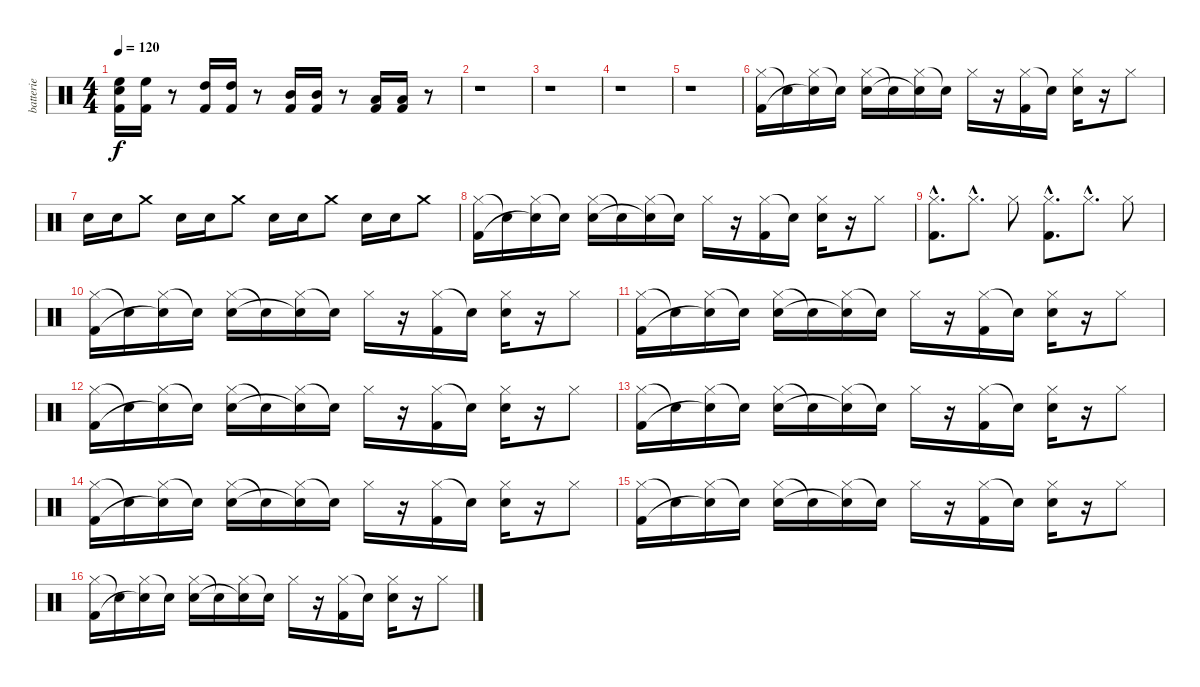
\track ("batterie" "batterie") {instrument percussion}
\staff {score}
\articulation defaults
\ts (4 4)
\tempo 120
\clef neutral
\ks c
("Snare (hit) 2" "High Floor Tom (hit)" "Kick (hit) 2").16{dy f} ("High Floor Tom (hit)" "Kick (hit) 2").16 r.8 ("High Tom (hit)" "Kick (hit) 2").16 ("High Tom (hit)" "Kick (hit) 2").16 r.8 ("Mid Tom (hit)" "Kick (hit) 2").16 ("Mid Tom (hit)" "Kick (hit) 2").16 r.8 ("Low Tom (hit)" "Kick (hit) 2").16 ("Low Tom (hit)" "Kick (hit) 2").16 r.8 |
r.1 |
r.1 |
r.1 |
r.1 |
("Hi-Hat (closed)" "Kick (hit) 2").16 "Snare (hit)"{t}.16 ("Hi-Hat (closed)" "Snare (hit)"{t}).16 "Snare (hit)"{t}.16 ("Hi-Hat (closed)" "Snare (hit) 2").16 "Snare (hit)"{t}.16 ("Hi-Hat (closed)" "Snare (hit)"{t}).16 "Snare (hit)"{t}.16 "Hi-Hat (closed)".16 r.16 ("Hi-Hat (closed)" "Kick (hit) 2").16 "Snare (hit)"{t}.16 ("Hi-Hat (closed)" "Snare (hit) 2").16 r.16 "Hi-Hat (closed)".8 |
"Snare (hit) 2".16 "Snare (hit) 2".16 "Crash medium (hit)".8 "Snare (hit) 2".16 "Snare (hit) 2".16 "Crash medium (hit)".8 "Snare (hit) 2".16 "Snare (hit) 2".16 "Crash medium (hit)".8 "Snare (hit) 2".16 "Snare (hit) 2".16 "Crash medium (hit)".8 |
("Hi-Hat (closed)" "Kick (hit) 2").16 "Snare (hit)"{t}.16 ("Hi-Hat (closed)" "Snare (hit)"{t}).16 "Snare (hit)"{t}.16 ("Hi-Hat (closed)" "Snare (hit) 2").16 "Snare (hit)"{t}.16 ("Hi-Hat (closed)" "Snare (hit)"{t}).16 "Snare (hit)"{t}.16 "Hi-Hat (closed)".16 r.16 ("Hi-Hat (closed)" "Kick (hit) 2").16 "Snare (hit)"{t}.16 ("Hi-Hat (closed)" "Snare (hit) 2").16 r.16 "Hi-Hat (closed)".8 |
("Hi-Hat (closed)"{hac} "Kick (hit) 2"{hac}).8{d} "Hi-Hat (closed)"{hac}.8{d} "Hi-Hat (closed)".8 ("Hi-Hat (closed)"{hac} "Kick (hit) 2"{hac}).8{d} "Hi-Hat (closed)"{hac}.8{d} "Hi-Hat (closed)".8 |
("Hi-Hat (closed)" "Kick (hit) 2").16 "Snare (hit)"{t}.16 ("Hi-Hat (closed)" "Snare (hit)"{t}).16 "Snare (hit)"{t}.16 ("Hi-Hat (closed)" "Snare (hit) 2").16 "Snare (hit)"{t}.16 ("Hi-Hat (closed)" "Snare (hit)"{t}).16 "Snare (hit)"{t}.16 "Hi-Hat (closed)".16 r.16 ("Hi-Hat (closed)" "Kick (hit) 2").16 "Snare (hit)"{t}.16 ("Hi-Hat (closed)" "Snare (hit) 2").16 r.16 "Hi-Hat (closed)".8 |
("Hi-Hat (closed)" "Kick (hit) 2").16 "Snare (hit)"{t}.16 ("Hi-Hat (closed)" "Snare (hit)"{t}).16 "Snare (hit)"{t}.16 ("Hi-Hat (closed)" "Snare (hit) 2").16 "Snare (hit)"{t}.16 ("Hi-Hat (closed)" "Snare (hit)"{t}).16 "Snare (hit)"{t}.16 "Hi-Hat (closed)".16 r.16 ("Hi-Hat (closed)" "Kick (hit) 2").16 "Snare (hit)"{t}.16 ("Hi-Hat (closed)" "Snare (hit) 2").16 r.16 "Hi-Hat (closed)".8 |
("Hi-Hat (closed)" "Kick (hit) 2").16 "Snare (hit)"{t}.16 ("Hi-Hat (closed)" "Snare (hit)"{t}).16 "Snare (hit)"{t}.16 ("Hi-Hat (closed)" "Snare (hit) 2").16 "Snare (hit)"{t}.16 ("Hi-Hat (closed)" "Snare (hit)"{t}).16 "Snare (hit)"{t}.16 "Hi-Hat (closed)".16 r.16 ("Hi-Hat (closed)" "Kick (hit) 2").16 "Snare (hit)"{t}.16 ("Hi-Hat (closed)" "Snare (hit) 2").16 r.16 "Hi-Hat (closed)".8 |
("Hi-Hat (closed)" "Kick (hit) 2").16 "Snare (hit)"{t}.16 ("Hi-Hat (closed)" "Snare (hit)"{t}).16 "Snare (hit)"{t}.16 ("Hi-Hat (closed)" "Snare (hit) 2").16 "Snare (hit)"{t}.16 ("Hi-Hat (closed)" "Snare (hit)"{t}).16 "Snare (hit)"{t}.16 "Hi-Hat (closed)".16 r.16 ("Hi-Hat (closed)" "Kick (hit) 2").16 "Snare (hit)"{t}.16 ("Hi-Hat (closed)" "Snare (hit) 2").16 r.16 "Hi-Hat (closed)".8 |
("Hi-Hat (closed)" "Kick (hit) 2").16 "Snare (hit)"{t}.16 ("Hi-Hat (closed)" "Snare (hit)"{t}).16 "Snare (hit)"{t}.16 ("Hi-Hat (closed)" "Snare (hit) 2").16 "Snare (hit)"{t}.16 ("Hi-Hat (closed)" "Snare (hit)"{t}).16 "Snare (hit)"{t}.16 "Hi-Hat (closed)".16 r.16 ("Hi-Hat (closed)" "Kick (hit) 2").16 "Snare (hit)"{t}.16 ("Hi-Hat (closed)" "Snare (hit) 2").16 r.16 "Hi-Hat (closed)".8 |
("Hi-Hat (closed)" "Kick (hit) 2").16 "Snare (hit)"{t}.16 ("Hi-Hat (closed)" "Snare (hit)"{t}).16 "Snare (hit)"{t}.16 ("Hi-Hat (closed)" "Snare (hit) 2").16 "Snare (hit)"{t}.16 ("Hi-Hat (closed)" "Snare (hit)"{t}).16 "Snare (hit)"{t}.16 "Hi-Hat (closed)".16 r.16 ("Hi-Hat (closed)" "Kick (hit) 2").16 "Snare (hit)"{t}.16 ("Hi-Hat (closed)" "Snare (hit) 2").16 r.16 "Hi-Hat (closed)".8 |
("Hi-Hat (closed)" "Kick (hit) 2").16 "Snare (hit)"{t}.16 ("Hi-Hat (closed)" "Snare (hit)"{t}).16 "Snare (hit)"{t}.16 ("Hi-Hat (closed)" "Snare (hit) 2").16 "Snare (hit)"{t}.16 ("Hi-Hat (closed)" "Snare (hit)"{t}).16 "Snare (hit)"{t}.16 "Hi-Hat (closed)".16 r.16 ("Hi-Hat (closed)" "Kick (hit) 2").16 "Snare (hit)"{t}.16 ("Hi-Hat (closed)" "Snare (hit) 2").16 r.16 "Hi-Hat (closed)".8
